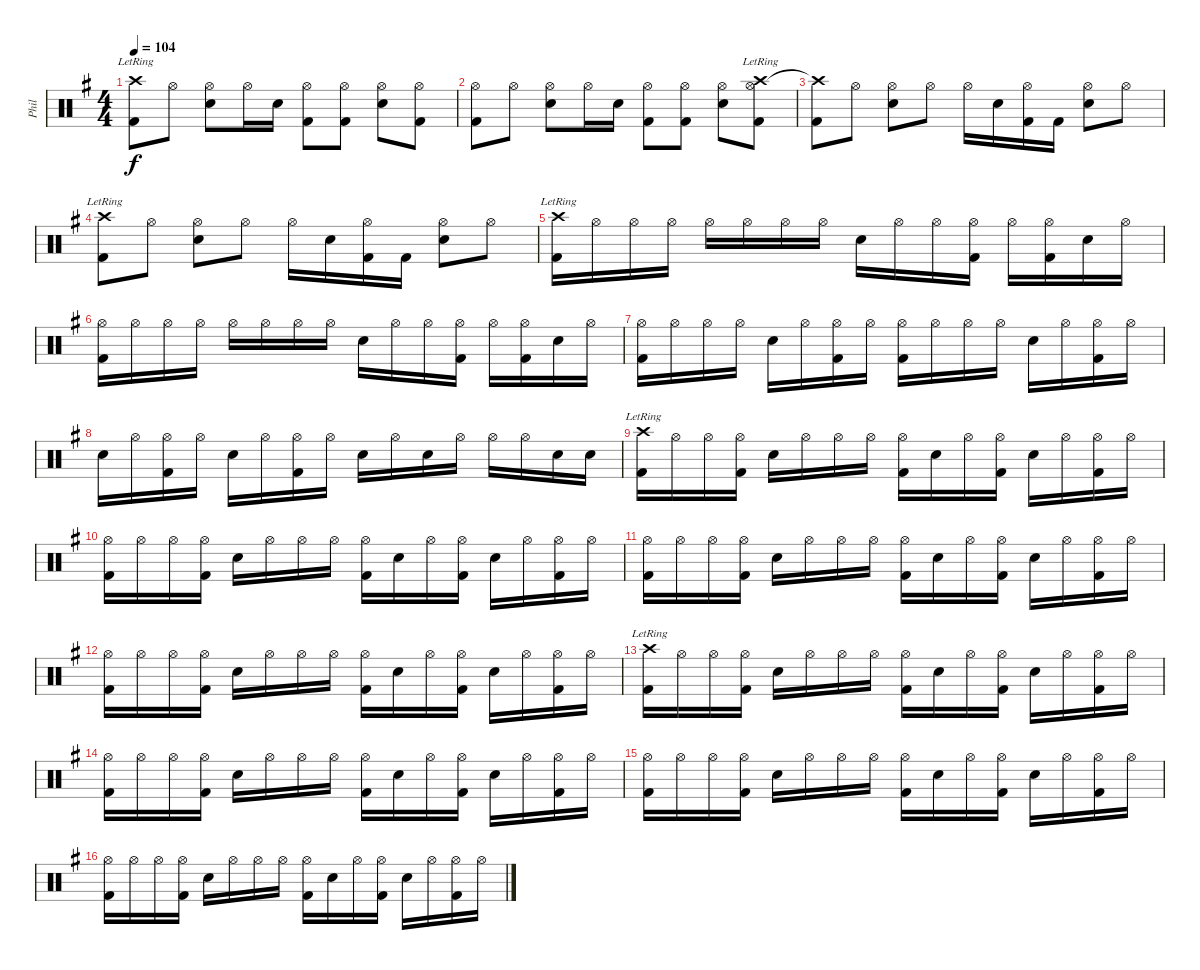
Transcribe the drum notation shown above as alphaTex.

\track ("Phil" "Phil") {instrument percussion}
\staff {score}
\articulation defaults
\ts (4 4)
\tempo 104
\clef neutral
\ks g
("Kick (hit) 2" "Crash high (hit)"{lr}).8{dy f} "Hi-Hat (open)".8 ("Snare (hit) 2" "Hi-Hat (open)").8 "Hi-Hat (open)".16 "Snare (hit) 2".16 ("Kick (hit) 2" "Hi-Hat (open)").8 ("Kick (hit) 2" "Hi-Hat (open)").8 ("Snare (hit) 2" "Hi-Hat (open)").8 ("Kick (hit) 2" "Hi-Hat (open)").8 |
("Kick (hit) 2" "Hi-Hat (open)").8 "Hi-Hat (open)".8 ("Snare (hit) 2" "Hi-Hat (open)").8 "Hi-Hat (open)".16 "Snare (hit) 2".16 ("Kick (hit) 2" "Hi-Hat (open)").8 ("Kick (hit) 2" "Hi-Hat (open)").8 ("Snare (hit) 2" "Hi-Hat (open)").8 ("Kick (hit) 2" "Hi-Hat (open)" "Crash high (hit)"{lr}).8 |
("Kick (hit) 2" "Crash high (hit)"{t}).8 "Hi-Hat (open)".8 ("Snare (hit) 2" "Hi-Hat (open)").8 "Hi-Hat (open)".8 "Hi-Hat (open)".16 "Snare (hit) 2".16 ("Kick (hit) 2" "Hi-Hat (open)").16 "Kick (hit) 2".16 ("Snare (hit) 2" "Hi-Hat (open)").8 "Hi-Hat (open)".8 |
("Kick (hit) 2" "Crash high (hit)"{lr}).8 "Hi-Hat (open)".8 ("Snare (hit) 2" "Hi-Hat (open)").8 "Hi-Hat (open)".8 "Hi-Hat (open)".16 "Snare (hit) 2".16 ("Kick (hit) 2" "Hi-Hat (open)").16 "Kick (hit) 2".16 ("Snare (hit) 2" "Hi-Hat (open)").8 "Hi-Hat (open)".8 |
("Kick (hit) 2" "Crash high (hit)"{lr}).16 "Hi-Hat (open)".16 "Hi-Hat (open)".16 "Hi-Hat (open)".16 "Hi-Hat (open)".16 "Hi-Hat (open)".16 "Hi-Hat (open)".16 "Hi-Hat (open)".16 "Snare (hit) 2".16 "Hi-Hat (open)".16 "Hi-Hat (open)".16 ("Kick (hit) 2" "Hi-Hat (open)").16 "Hi-Hat (open)".16 ("Kick (hit) 2" "Hi-Hat (open)").16 "Snare (hit) 2".16 "Hi-Hat (open)".16 |
("Kick (hit) 2" "Hi-Hat (open)").16 "Hi-Hat (open)".16 "Hi-Hat (open)".16 "Hi-Hat (open)".16 "Hi-Hat (open)".16 "Hi-Hat (open)".16 "Hi-Hat (open)".16 "Hi-Hat (open)".16 "Snare (hit) 2".16 "Hi-Hat (open)".16 "Hi-Hat (open)".16 ("Kick (hit) 2" "Hi-Hat (open)").16 "Hi-Hat (open)".16 ("Kick (hit) 2" "Hi-Hat (open)").16 "Snare (hit) 2".16 "Hi-Hat (open)".16 |
("Kick (hit) 2" "Hi-Hat (open)").16 "Hi-Hat (open)".16 "Hi-Hat (open)".16 "Hi-Hat (open)".16 "Snare (hit) 2".16 "Hi-Hat (open)".16 ("Kick (hit) 2" "Hi-Hat (open)").16 "Hi-Hat (open)".16 ("Kick (hit) 2" "Hi-Hat (open)").16 "Hi-Hat (open)".16 "Hi-Hat (open)".16 "Hi-Hat (open)".16 "Snare (hit) 2".16 "Hi-Hat (open)".16 ("Kick (hit) 2" "Hi-Hat (open)").16 "Hi-Hat (open)".16 |
"Snare (hit) 2".16 "Hi-Hat (open)".16 ("Kick (hit) 2" "Hi-Hat (open)").16 "Hi-Hat (open)".16 "Snare (hit) 2".16 "Hi-Hat (open)".16 ("Kick (hit) 2" "Hi-Hat (open)").16 "Hi-Hat (open)".16 "Snare (hit) 2".16 "Hi-Hat (open)".16 "Snare (hit) 2".16 "Hi-Hat (open)".16 "Hi-Hat (open)".16 "Hi-Hat (open)".16 "Snare (hit) 2".16 "Snare (hit) 2".16 |
("Kick (hit) 2" "Crash high (hit)"{lr}).16 "Hi-Hat (open)".16 "Hi-Hat (open)".16 ("Kick (hit) 2" "Hi-Hat (open)").16 "Snare (hit) 2".16 "Hi-Hat (open)".16 "Hi-Hat (open)".16 "Hi-Hat (open)".16 ("Kick (hit) 2" "Hi-Hat (open)").16 "Snare (hit) 2".16 "Hi-Hat (open)".16 ("Kick (hit) 2" "Hi-Hat (open)").16 "Snare (hit) 2".16 "Hi-Hat (open)".16 ("Kick (hit) 2" "Hi-Hat (open)").16 "Hi-Hat (open)".16 |
("Kick (hit) 2" "Hi-Hat (open)").16 "Hi-Hat (open)".16 "Hi-Hat (open)".16 ("Kick (hit) 2" "Hi-Hat (open)").16 "Snare (hit) 2".16 "Hi-Hat (open)".16 "Hi-Hat (open)".16 "Hi-Hat (open)".16 ("Kick (hit) 2" "Hi-Hat (open)").16 "Snare (hit) 2".16 "Hi-Hat (open)".16 ("Kick (hit) 2" "Hi-Hat (open)").16 "Snare (hit) 2".16 "Hi-Hat (open)".16 ("Kick (hit) 2" "Hi-Hat (open)").16 "Hi-Hat (open)".16 |
("Kick (hit) 2" "Hi-Hat (open)").16 "Hi-Hat (open)".16 "Hi-Hat (open)".16 ("Kick (hit) 2" "Hi-Hat (open)").16 "Snare (hit) 2".16 "Hi-Hat (open)".16 "Hi-Hat (open)".16 "Hi-Hat (open)".16 ("Kick (hit) 2" "Hi-Hat (open)").16 "Snare (hit) 2".16 "Hi-Hat (open)".16 ("Kick (hit) 2" "Hi-Hat (open)").16 "Snare (hit) 2".16 "Hi-Hat (open)".16 ("Kick (hit) 2" "Hi-Hat (open)").16 "Hi-Hat (open)".16 |
("Kick (hit) 2" "Hi-Hat (open)").16 "Hi-Hat (open)".16 "Hi-Hat (open)".16 ("Kick (hit) 2" "Hi-Hat (open)").16 "Snare (hit) 2".16 "Hi-Hat (open)".16 "Hi-Hat (open)".16 "Hi-Hat (open)".16 ("Kick (hit) 2" "Hi-Hat (open)").16 "Snare (hit) 2".16 "Hi-Hat (open)".16 ("Kick (hit) 2" "Hi-Hat (open)").16 "Snare (hit) 2".16 "Hi-Hat (open)".16 ("Kick (hit) 2" "Hi-Hat (open)").16 "Hi-Hat (open)".16 |
("Kick (hit) 2" "Crash high (hit)"{lr}).16 "Hi-Hat (open)".16 "Hi-Hat (open)".16 ("Kick (hit) 2" "Hi-Hat (open)").16 "Snare (hit) 2".16 "Hi-Hat (open)".16 "Hi-Hat (open)".16 "Hi-Hat (open)".16 ("Kick (hit) 2" "Hi-Hat (open)").16 "Snare (hit) 2".16 "Hi-Hat (open)".16 ("Kick (hit) 2" "Hi-Hat (open)").16 "Snare (hit) 2".16 "Hi-Hat (open)".16 ("Kick (hit) 2" "Hi-Hat (open)").16 "Hi-Hat (open)".16 |
("Kick (hit) 2" "Hi-Hat (open)").16 "Hi-Hat (open)".16 "Hi-Hat (open)".16 ("Kick (hit) 2" "Hi-Hat (open)").16 "Snare (hit) 2".16 "Hi-Hat (open)".16 "Hi-Hat (open)".16 "Hi-Hat (open)".16 ("Kick (hit) 2" "Hi-Hat (open)").16 "Snare (hit) 2".16 "Hi-Hat (open)".16 ("Kick (hit) 2" "Hi-Hat (open)").16 "Snare (hit) 2".16 "Hi-Hat (open)".16 ("Kick (hit) 2" "Hi-Hat (open)").16 "Hi-Hat (open)".16 |
("Kick (hit) 2" "Hi-Hat (open)").16 "Hi-Hat (open)".16 "Hi-Hat (open)".16 ("Kick (hit) 2" "Hi-Hat (open)").16 "Snare (hit) 2".16 "Hi-Hat (open)".16 "Hi-Hat (open)".16 "Hi-Hat (open)".16 ("Kick (hit) 2" "Hi-Hat (open)").16 "Snare (hit) 2".16 "Hi-Hat (open)".16 ("Kick (hit) 2" "Hi-Hat (open)").16 "Snare (hit) 2".16 "Hi-Hat (open)".16 ("Kick (hit) 2" "Hi-Hat (open)").16 "Hi-Hat (open)".16 |
("Kick (hit) 2" "Hi-Hat (open)").16 "Hi-Hat (open)".16 "Hi-Hat (open)".16 ("Kick (hit) 2" "Hi-Hat (open)").16 "Snare (hit) 2".16 "Hi-Hat (open)".16 "Hi-Hat (open)".16 "Hi-Hat (open)".16 ("Kick (hit) 2" "Hi-Hat (open)").16 "Snare (hit) 2".16 "Hi-Hat (open)".16 ("Kick (hit) 2" "Hi-Hat (open)").16 "Snare (hit) 2".16 "Hi-Hat (open)".16 ("Kick (hit) 2" "Hi-Hat (open)").16 "Hi-Hat (open)".16
